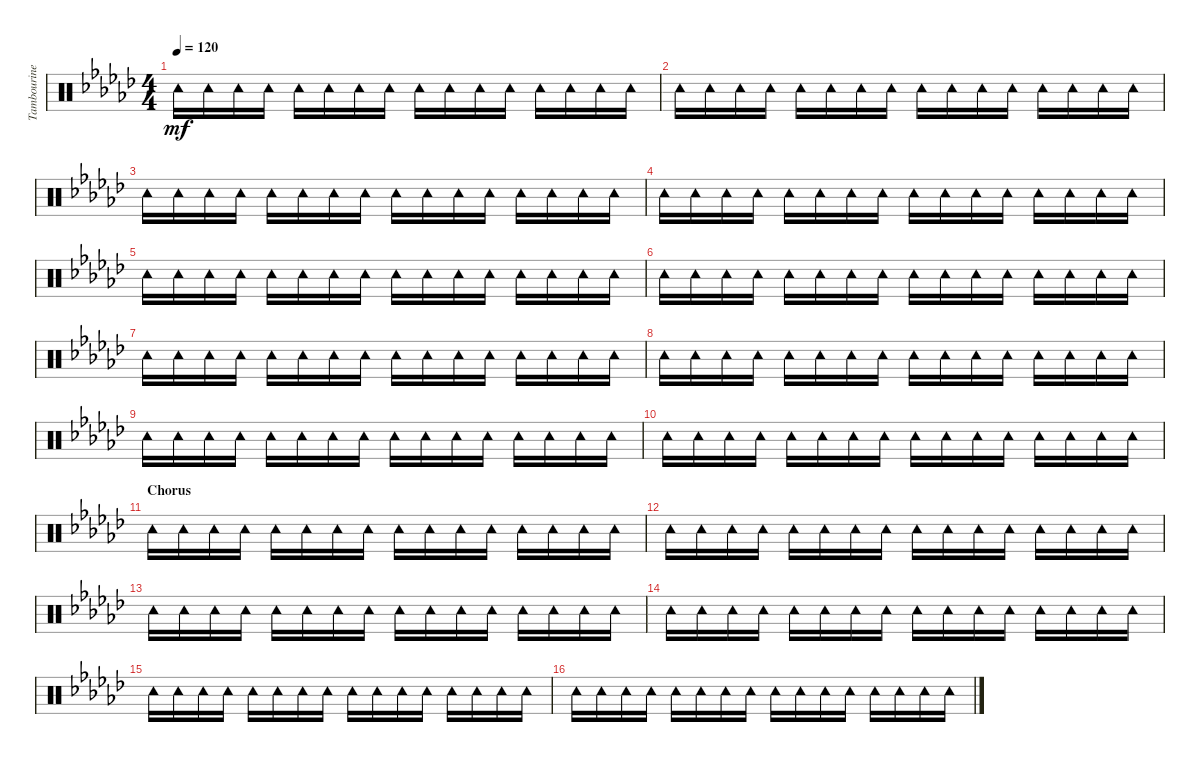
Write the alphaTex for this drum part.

\track ("Tambourine" "Tambourine") {instrument percussion}
\staff {score}
\articulation defaults
\ts (4 4)
\tempo 120
\clef neutral
\ks ebminor "Tambourine (hit)".16{dy mf} "Tambourine (hit)".16 "Tambourine (hit)".16 "Tambourine (hit)".16 "Tambourine (hit)".16 "Tambourine (hit)".16 "Tambourine (hit)".16 "Tambourine (hit)".16 "Tambourine (hit)".16 "Tambourine (hit)".16 "Tambourine (hit)".16 "Tambourine (hit)".16 "Tambourine (hit)".16 "Tambourine (hit)".16 "Tambourine (hit)".16 "Tambourine (hit)".16
|
"Tambourine (hit)".16 "Tambourine (hit)".16 "Tambourine (hit)".16 "Tambourine (hit)".16 "Tambourine (hit)".16 "Tambourine (hit)".16 "Tambourine (hit)".16 "Tambourine (hit)".16 "Tambourine (hit)".16 "Tambourine (hit)".16 "Tambourine (hit)".16 "Tambourine (hit)".16 "Tambourine (hit)".16 "Tambourine (hit)".16 "Tambourine (hit)".16 "Tambourine (hit)".16 |
"Tambourine (hit)".16 "Tambourine (hit)".16 "Tambourine (hit)".16 "Tambourine (hit)".16 "Tambourine (hit)".16 "Tambourine (hit)".16 "Tambourine (hit)".16 "Tambourine (hit)".16 "Tambourine (hit)".16 "Tambourine (hit)".16 "Tambourine (hit)".16 "Tambourine (hit)".16 "Tambourine (hit)".16 "Tambourine (hit)".16 "Tambourine (hit)".16 "Tambourine (hit)".16 |
"Tambourine (hit)".16 "Tambourine (hit)".16 "Tambourine (hit)".16 "Tambourine (hit)".16 "Tambourine (hit)".16 "Tambourine (hit)".16 "Tambourine (hit)".16 "Tambourine (hit)".16 "Tambourine (hit)".16 "Tambourine (hit)".16 "Tambourine (hit)".16 "Tambourine (hit)".16 "Tambourine (hit)".16 "Tambourine (hit)".16 "Tambourine (hit)".16 "Tambourine (hit)".16 |
"Tambourine (hit)".16 "Tambourine (hit)".16 "Tambourine (hit)".16 "Tambourine (hit)".16 "Tambourine (hit)".16 "Tambourine (hit)".16 "Tambourine (hit)".16 "Tambourine (hit)".16 "Tambourine (hit)".16 "Tambourine (hit)".16 "Tambourine (hit)".16 "Tambourine (hit)".16 "Tambourine (hit)".16 "Tambourine (hit)".16 "Tambourine (hit)".16 "Tambourine (hit)".16 |
"Tambourine (hit)".16 "Tambourine (hit)".16 "Tambourine (hit)".16 "Tambourine (hit)".16 "Tambourine (hit)".16 "Tambourine (hit)".16 "Tambourine (hit)".16 "Tambourine (hit)".16 "Tambourine (hit)".16 "Tambourine (hit)".16 "Tambourine (hit)".16 "Tambourine (hit)".16 "Tambourine (hit)".16 "Tambourine (hit)".16 "Tambourine (hit)".16 "Tambourine (hit)".16 |
"Tambourine (hit)".16 "Tambourine (hit)".16 "Tambourine (hit)".16 "Tambourine (hit)".16 "Tambourine (hit)".16 "Tambourine (hit)".16 "Tambourine (hit)".16 "Tambourine (hit)".16 "Tambourine (hit)".16 "Tambourine (hit)".16 "Tambourine (hit)".16 "Tambourine (hit)".16 "Tambourine (hit)".16 "Tambourine (hit)".16 "Tambourine (hit)".16 "Tambourine (hit)".16 |
"Tambourine (hit)".16 "Tambourine (hit)".16 "Tambourine (hit)".16 "Tambourine (hit)".16 "Tambourine (hit)".16 "Tambourine (hit)".16 "Tambourine (hit)".16 "Tambourine (hit)".16 "Tambourine (hit)".16 "Tambourine (hit)".16 "Tambourine (hit)".16 "Tambourine (hit)".16 "Tambourine (hit)".16 "Tambourine (hit)".16 "Tambourine (hit)".16 "Tambourine (hit)".16 |
"Tambourine (hit)".16 "Tambourine (hit)".16 "Tambourine (hit)".16 "Tambourine (hit)".16 "Tambourine (hit)".16 "Tambourine (hit)".16 "Tambourine (hit)".16 "Tambourine (hit)".16 "Tambourine (hit)".16 "Tambourine (hit)".16 "Tambourine (hit)".16 "Tambourine (hit)".16 "Tambourine (hit)".16 "Tambourine (hit)".16 "Tambourine (hit)".16 "Tambourine (hit)".16 |
"Tambourine (hit)".16 "Tambourine (hit)".16 "Tambourine (hit)".16 "Tambourine (hit)".16 "Tambourine (hit)".16 "Tambourine (hit)".16 "Tambourine (hit)".16 "Tambourine (hit)".16 "Tambourine (hit)".16 "Tambourine (hit)".16 "Tambourine (hit)".16 "Tambourine (hit)".16 "Tambourine (hit)".16 "Tambourine (hit)".16 "Tambourine (hit)".16 "Tambourine (hit)".16 |
\section ("" "Chorus")
"Tambourine (hit)".16 "Tambourine (hit)".16 "Tambourine (hit)".16 "Tambourine (hit)".16 "Tambourine (hit)".16 "Tambourine (hit)".16 "Tambourine (hit)".16 "Tambourine (hit)".16 "Tambourine (hit)".16 "Tambourine (hit)".16 "Tambourine (hit)".16 "Tambourine (hit)".16 "Tambourine (hit)".16 "Tambourine (hit)".16 "Tambourine (hit)".16 "Tambourine (hit)".16 |
"Tambourine (hit)".16 "Tambourine (hit)".16 "Tambourine (hit)".16 "Tambourine (hit)".16 "Tambourine (hit)".16 "Tambourine (hit)".16 "Tambourine (hit)".16 "Tambourine (hit)".16 "Tambourine (hit)".16 "Tambourine (hit)".16 "Tambourine (hit)".16 "Tambourine (hit)".16 "Tambourine (hit)".16 "Tambourine (hit)".16 "Tambourine (hit)".16 "Tambourine (hit)".16 |
"Tambourine (hit)".16 "Tambourine (hit)".16 "Tambourine (hit)".16 "Tambourine (hit)".16 "Tambourine (hit)".16 "Tambourine (hit)".16 "Tambourine (hit)".16 "Tambourine (hit)".16 "Tambourine (hit)".16 "Tambourine (hit)".16 "Tambourine (hit)".16 "Tambourine (hit)".16 "Tambourine (hit)".16 "Tambourine (hit)".16 "Tambourine (hit)".16 "Tambourine (hit)".16 |
"Tambourine (hit)".16 "Tambourine (hit)".16 "Tambourine (hit)".16 "Tambourine (hit)".16 "Tambourine (hit)".16 "Tambourine (hit)".16 "Tambourine (hit)".16 "Tambourine (hit)".16 "Tambourine (hit)".16 "Tambourine (hit)".16 "Tambourine (hit)".16 "Tambourine (hit)".16 "Tambourine (hit)".16 "Tambourine (hit)".16 "Tambourine (hit)".16 "Tambourine (hit)".16 |
"Tambourine (hit)".16 "Tambourine (hit)".16 "Tambourine (hit)".16 "Tambourine (hit)".16 "Tambourine (hit)".16 "Tambourine (hit)".16 "Tambourine (hit)".16 "Tambourine (hit)".16 "Tambourine (hit)".16 "Tambourine (hit)".16 "Tambourine (hit)".16 "Tambourine (hit)".16 "Tambourine (hit)".16 "Tambourine (hit)".16 "Tambourine (hit)".16 "Tambourine (hit)".16 |
"Tambourine (hit)".16 "Tambourine (hit)".16 "Tambourine (hit)".16 "Tambourine (hit)".16 "Tambourine (hit)".16 "Tambourine (hit)".16 "Tambourine (hit)".16 "Tambourine (hit)".16 "Tambourine (hit)".16 "Tambourine (hit)".16 "Tambourine (hit)".16 "Tambourine (hit)".16 "Tambourine (hit)".16 "Tambourine (hit)".16 "Tambourine (hit)".16 "Tambourine (hit)".16
